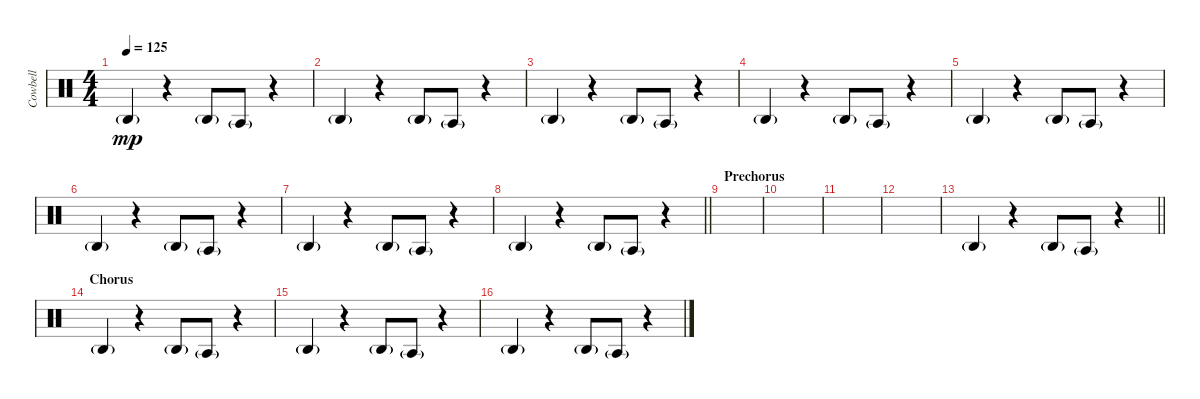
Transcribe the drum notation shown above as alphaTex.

\track ("Cowbell" "Cowbell") {instrument percussion}
\staff {score}
\articulation defaults
\ts (4 4)
\tempo 125
\clef neutral
\ks c "Agogo high (hit)"{g}.4{dy mp}
r.4 "Agogo high (hit)"{g}.8 "Agogo tow (hit)"{g}.8 r.4 |
"Agogo high (hit)"{g}.4 r.4 "Agogo high (hit)"{g}.8 "Agogo tow (hit)"{g}.8 r.4 |
"Agogo high (hit)"{g}.4 r.4 "Agogo high (hit)"{g}.8 "Agogo tow (hit)"{g}.8 r.4 |
"Agogo high (hit)"{g}.4 r.4 "Agogo high (hit)"{g}.8 "Agogo tow (hit)"{g}.8 r.4 |
"Agogo high (hit)"{g}.4 r.4 "Agogo high (hit)"{g}.8 "Agogo tow (hit)"{g}.8 r.4 |
"Agogo high (hit)"{g}.4 r.4 "Agogo high (hit)"{g}.8 "Agogo tow (hit)"{g}.8 r.4 |
"Agogo high (hit)"{g}.4 r.4 "Agogo high (hit)"{g}.8 "Agogo tow (hit)"{g}.8 r.4 |
\barLineRight lightlight "Agogo high (hit)"{g}.4
r.4 "Agogo high (hit)"{g}.8 "Agogo tow (hit)"{g}.8 r.4 |
\section ("" "Prechorus")
|
|
|
|
\barLineRight lightlight "Agogo high (hit)"{g}.4
r.4 "Agogo high (hit)"{g}.8 "Agogo tow (hit)"{g}.8 r.4 |
\section ("" "Chorus")
"Agogo high (hit)"{g}.4 r.4 "Agogo high (hit)"{g}.8 "Agogo tow (hit)"{g}.8 r.4 |
"Agogo high (hit)"{g}.4 r.4 "Agogo high (hit)"{g}.8 "Agogo tow (hit)"{g}.8 r.4 |
"Agogo high (hit)"{g}.4 r.4 "Agogo high (hit)"{g}.8 "Agogo tow (hit)"{g}.8 r.4
